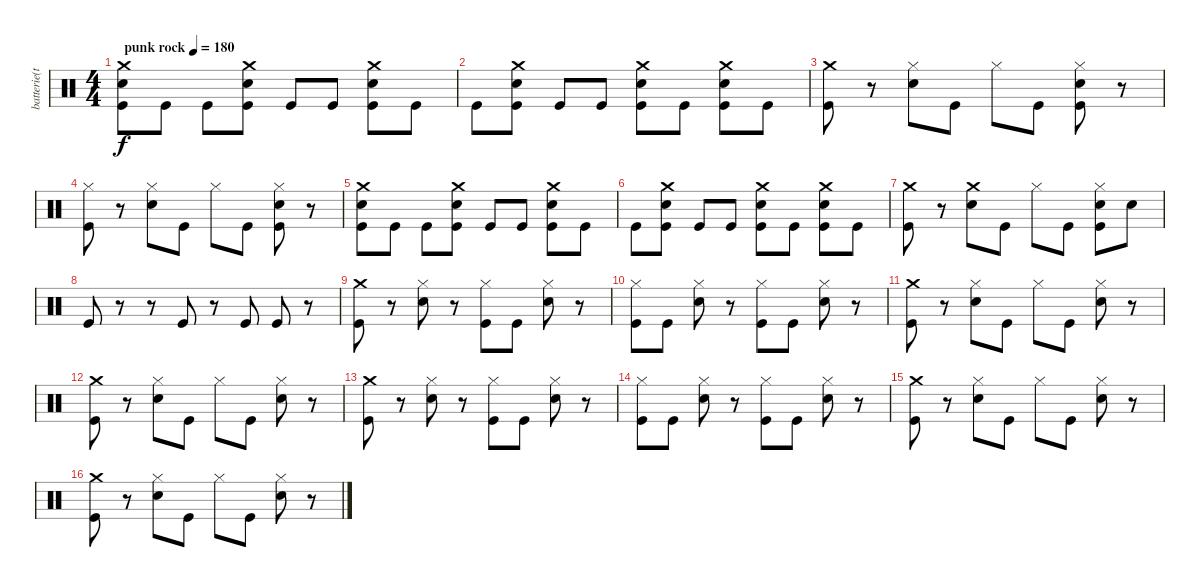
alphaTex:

\track ("batterie(topper)" "batterie(t") {instrument percussion}
\staff {score}
\articulation defaults
\ts (4 4)
\tempo (180 "punk rock")
\clef neutral
\ks c
("Crash medium (hit)" "Snare (hit) 2" "Kick (hit)").8{dy f} "Kick (hit)".8 "Kick (hit)".8 ("Crash medium (hit)" "Snare (hit) 2" "Kick (hit)").8 "Kick (hit)".8 "Kick (hit)".8 ("Crash medium (hit)" "Snare (hit) 2" "Kick (hit)").8 "Kick (hit)".8 |
"Kick (hit)".8 ("Crash medium (hit)" "Snare (hit) 2" "Kick (hit)").8 "Kick (hit)".8 "Kick (hit)".8 ("Crash medium (hit)" "Snare (hit) 2" "Kick (hit)").8 "Kick (hit)".8 ("Crash medium (hit)" "Snare (hit) 2" "Kick (hit)").8 "Kick (hit)".8 |
("Crash medium (hit)" "Kick (hit)").8 r.8 ("Hi-Hat (closed)" "Snare (hit) 2").8 "Kick (hit)".8 "Hi-Hat (closed)".8 "Kick (hit)".8 ("Hi-Hat (closed)" "Snare (hit) 2" "Kick (hit)").8 r.8 |
("Hi-Hat (closed)" "Kick (hit)").8 r.8 ("Hi-Hat (closed)" "Snare (hit) 2").8 "Kick (hit)".8 "Hi-Hat (closed)".8 "Kick (hit)".8 ("Hi-Hat (closed)" "Snare (hit) 2" "Kick (hit)").8 r.8 |
("Crash medium (hit)" "Snare (hit) 2" "Kick (hit)").8 "Kick (hit)".8 "Kick (hit)".8 ("Crash medium (hit)" "Snare (hit) 2" "Kick (hit)").8 "Kick (hit)".8 "Kick (hit)".8 ("Crash medium (hit)" "Snare (hit) 2" "Kick (hit)").8 "Kick (hit)".8 |
"Kick (hit)".8 ("Crash medium (hit)" "Snare (hit) 2" "Kick (hit)").8 "Kick (hit)".8 "Kick (hit)".8 ("Crash medium (hit)" "Snare (hit) 2" "Kick (hit)").8 "Kick (hit)".8 ("Crash medium (hit)" "Snare (hit) 2" "Kick (hit)").8 "Kick (hit)".8 |
("Crash medium (hit)" "Kick (hit)").8 r.8 ("Crash medium (hit)" "Snare (hit) 2").8 "Kick (hit)".8 "Hi-Hat (closed)".8 "Kick (hit)".8 ("Hi-Hat (closed)" "Snare (hit) 2" "Kick (hit)").8 "Snare (hit) 2".8 |
"Kick (hit)".8 r.8 r.8 "Kick (hit)".8 r.8 "Kick (hit)".8 "Kick (hit)".8 r.8 |
("Crash medium (hit)" "Kick (hit)").8 r.8 ("Hi-Hat (closed)" "Snare (hit) 2").8 r.8 ("Hi-Hat (closed)" "Kick (hit)").8 "Kick (hit)".8 ("Hi-Hat (closed)" "Snare (hit) 2").8 r.8 |
("Hi-Hat (closed)" "Kick (hit)").8 "Kick (hit)".8 ("Hi-Hat (closed)" "Snare (hit) 2").8 r.8 ("Hi-Hat (closed)" "Kick (hit)").8 "Kick (hit)".8 ("Hi-Hat (closed)" "Snare (hit) 2").8 r.8 |
("Crash medium (hit)" "Kick (hit)").8 r.8 ("Hi-Hat (closed)" "Snare (hit) 2").8 "Kick (hit)".8 "Hi-Hat (closed)".8 "Kick (hit)".8 ("Hi-Hat (closed)" "Snare (hit) 2").8 r.8 |
("Crash medium (hit)" "Kick (hit)").8 r.8 ("Hi-Hat (closed)" "Snare (hit) 2").8 "Kick (hit)".8 "Hi-Hat (closed)".8 "Kick (hit)".8 ("Hi-Hat (closed)" "Snare (hit) 2").8 r.8 |
("Crash medium (hit)" "Kick (hit)").8 r.8 ("Hi-Hat (closed)" "Snare (hit) 2").8 r.8 ("Hi-Hat (closed)" "Kick (hit)").8 "Kick (hit)".8 ("Hi-Hat (closed)" "Snare (hit) 2").8 r.8 |
("Hi-Hat (closed)" "Kick (hit)").8 "Kick (hit)".8 ("Hi-Hat (closed)" "Snare (hit) 2").8 r.8 ("Hi-Hat (closed)" "Kick (hit)").8 "Kick (hit)".8 ("Hi-Hat (closed)" "Snare (hit) 2").8 r.8 |
("Crash medium (hit)" "Kick (hit)").8 r.8 ("Hi-Hat (closed)" "Snare (hit) 2").8 "Kick (hit)".8 "Hi-Hat (closed)".8 "Kick (hit)".8 ("Hi-Hat (closed)" "Snare (hit) 2").8 r.8 |
("Crash medium (hit)" "Kick (hit)").8 r.8 ("Hi-Hat (closed)" "Snare (hit) 2").8 "Kick (hit)".8 "Hi-Hat (closed)".8 "Kick (hit)".8 ("Hi-Hat (closed)" "Snare (hit) 2").8 r.8
